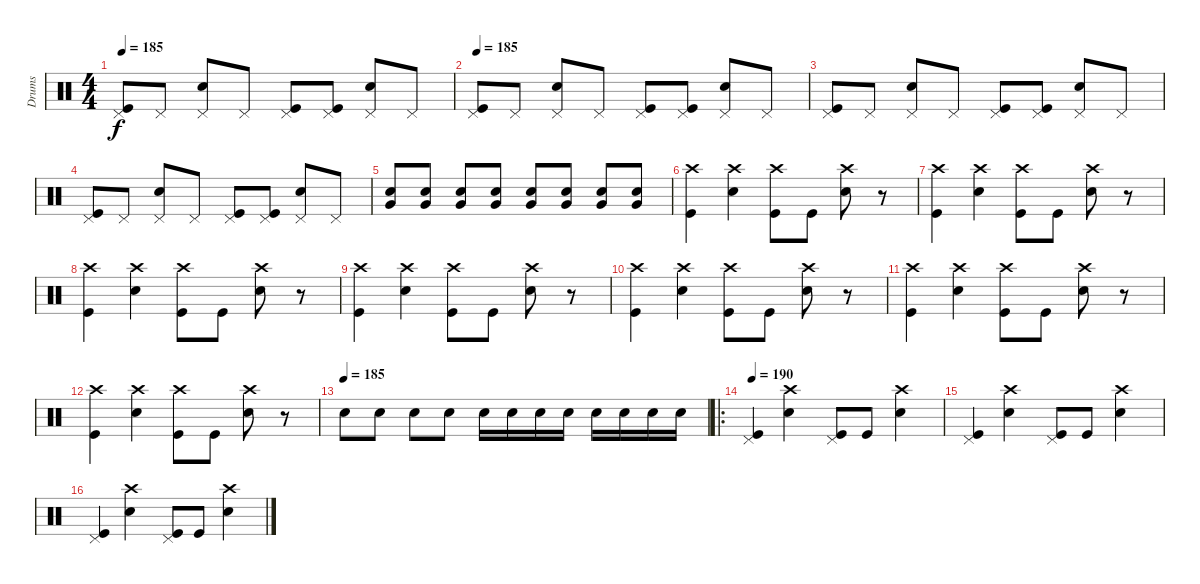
\track ("Drums" "Drums") {instrument percussion}
\staff {score}
\articulation defaults
\ts (4 4)
\tempo 185
\clef neutral
\ks c
("Pedal Hi-Hat (hit)" "Kick (hit)").8{dy f} "Pedal Hi-Hat (hit)".8 ("Pedal Hi-Hat (hit)" "Electric Snare (hit)").8 "Pedal Hi-Hat (hit)".8 ("Pedal Hi-Hat (hit)" "Kick (hit)").8 ("Pedal Hi-Hat (hit)" "Kick (hit)").8 ("Pedal Hi-Hat (hit)" "Electric Snare (hit)").8 "Pedal Hi-Hat (hit)".8 |
\tempo 185
("Pedal Hi-Hat (hit)" "Kick (hit)").8 "Pedal Hi-Hat (hit)".8 ("Pedal Hi-Hat (hit)" "Electric Snare (hit)").8 "Pedal Hi-Hat (hit)".8 ("Pedal Hi-Hat (hit)" "Kick (hit)").8 ("Pedal Hi-Hat (hit)" "Kick (hit)").8 ("Pedal Hi-Hat (hit)" "Electric Snare (hit)").8 "Pedal Hi-Hat (hit)".8 |
("Pedal Hi-Hat (hit)" "Kick (hit)").8 "Pedal Hi-Hat (hit)".8 ("Pedal Hi-Hat (hit)" "Electric Snare (hit)").8 "Pedal Hi-Hat (hit)".8 ("Pedal Hi-Hat (hit)" "Kick (hit)").8 ("Pedal Hi-Hat (hit)" "Kick (hit)").8 ("Pedal Hi-Hat (hit)" "Electric Snare (hit)").8 "Pedal Hi-Hat (hit)".8 |
("Pedal Hi-Hat (hit)" "Kick (hit)").8 "Pedal Hi-Hat (hit)".8 ("Pedal Hi-Hat (hit)" "Electric Snare (hit)").8 "Pedal Hi-Hat (hit)".8 ("Pedal Hi-Hat (hit)" "Kick (hit)").8 ("Pedal Hi-Hat (hit)" "Kick (hit)").8 ("Pedal Hi-Hat (hit)" "Electric Snare (hit)").8 "Pedal Hi-Hat (hit)".8 |
("Very Low Tom (hit)" "Electric Snare (hit)").8 ("Very Low Tom (hit)" "Electric Snare (hit)").8 ("Very Low Tom (hit)" "Electric Snare (hit)").8 ("Very Low Tom (hit)" "Electric Snare (hit)").8 ("Very Low Tom (hit)" "Electric Snare (hit)").8 ("Very Low Tom (hit)" "Electric Snare (hit)").8 ("Very Low Tom (hit)" "Electric Snare (hit)").8 ("Very Low Tom (hit)" "Electric Snare (hit)").8 |
("Crash high (hit)" "Kick (hit)").4 ("Crash high (hit)" "Electric Snare (hit)").4 ("Crash high (hit)" "Kick (hit)").8 "Kick (hit)".8 ("Crash high (hit)" "Electric Snare (hit)").8 r.8 |
("Crash high (hit)" "Kick (hit)").4 ("Crash high (hit)" "Electric Snare (hit)").4 ("Crash high (hit)" "Kick (hit)").8 "Kick (hit)".8 ("Crash high (hit)" "Electric Snare (hit)").8 r.8 |
("Crash high (hit)" "Kick (hit)").4 ("Crash high (hit)" "Electric Snare (hit)").4 ("Crash high (hit)" "Kick (hit)").8 "Kick (hit)".8 ("Crash high (hit)" "Electric Snare (hit)").8 r.8 |
("Crash high (hit)" "Kick (hit)").4 ("Crash high (hit)" "Electric Snare (hit)").4 ("Crash high (hit)" "Kick (hit)").8 "Kick (hit)".8 ("Crash high (hit)" "Electric Snare (hit)").8 r.8 |
("Crash high (hit)" "Kick (hit)").4 ("Crash high (hit)" "Electric Snare (hit)").4 ("Crash high (hit)" "Kick (hit)").8 "Kick (hit)".8 ("Crash high (hit)" "Electric Snare (hit)").8 r.8 |
("Crash high (hit)" "Kick (hit)").4 ("Crash high (hit)" "Electric Snare (hit)").4 ("Crash high (hit)" "Kick (hit)").8 "Kick (hit)".8 ("Crash high (hit)" "Electric Snare (hit)").8 r.8 |
("Crash high (hit)" "Kick (hit)").4 ("Crash high (hit)" "Electric Snare (hit)").4 ("Crash high (hit)" "Kick (hit)").8 "Kick (hit)".8 ("Crash high (hit)" "Electric Snare (hit)").8 r.8 |
\tempo (185)
"Electric Snare (hit)".8 "Electric Snare (hit)".8 "Electric Snare (hit)".8 "Electric Snare (hit)".8 "Electric Snare (hit)".16 "Electric Snare (hit)".16 "Electric Snare (hit)".16 "Electric Snare (hit)".16 "Electric Snare (hit)".16 "Electric Snare (hit)".16 "Electric Snare (hit)".16 "Electric Snare (hit)".16 |
\ro
\tempo 190
("Pedal Hi-Hat (hit)" "Kick (hit)").4 ("Crash high (hit)" "Electric Snare (hit)").4 ("Pedal Hi-Hat (hit)" "Kick (hit)").8 "Kick (hit)".8 ("Crash high (hit)" "Electric Snare (hit)").4 |
("Pedal Hi-Hat (hit)" "Kick (hit)").4 ("Crash high (hit)" "Electric Snare (hit)").4 ("Pedal Hi-Hat (hit)" "Kick (hit)").8 "Kick (hit)".8 ("Crash high (hit)" "Electric Snare (hit)").4 |
("Pedal Hi-Hat (hit)" "Kick (hit)").4 ("Crash high (hit)" "Electric Snare (hit)").4 ("Pedal Hi-Hat (hit)" "Kick (hit)").8 "Kick (hit)".8 ("Crash high (hit)" "Electric Snare (hit)").4
